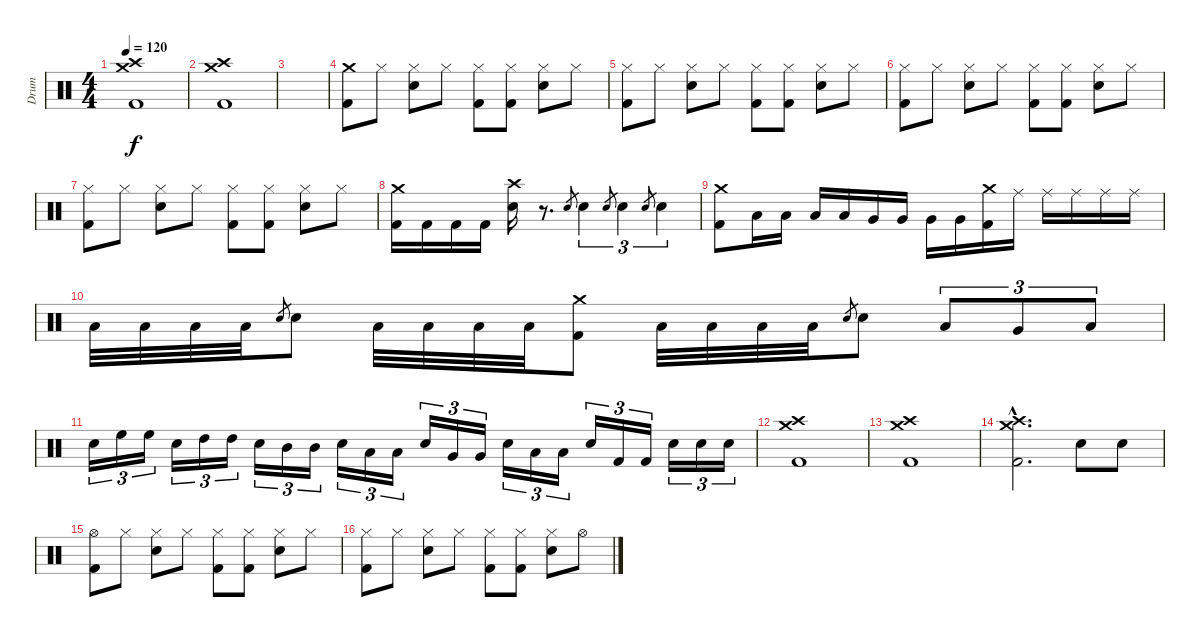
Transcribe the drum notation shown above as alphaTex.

\track ("Drum" "Drum") {instrument percussion}
\staff {score}
\articulation defaults
\ts (4 4)
\tempo 120
\clef neutral
\ks c
("Crash medium (hit)" "Crash high (hit)" "Kick (hit) 2").1{dy f} |
("Crash medium (hit)" "Crash high (hit)" "Kick (hit) 2").1 |
|
("Crash medium (hit)" "Kick (hit) 2").8 "Hi-Hat (closed)".8 ("Hi-Hat (closed)" "Electric Snare (hit)").8 "Hi-Hat (closed)".8 ("Hi-Hat (closed)" "Kick (hit) 2").8 ("Hi-Hat (closed)" "Kick (hit) 2").8 ("Hi-Hat (closed)" "Electric Snare (hit)").8 "Hi-Hat (closed)".8 |
("Hi-Hat (closed)" "Kick (hit) 2").8 "Hi-Hat (closed)".8 ("Hi-Hat (closed)" "Electric Snare (hit)").8 "Hi-Hat (closed)".8 ("Hi-Hat (closed)" "Kick (hit) 2").8 ("Hi-Hat (closed)" "Kick (hit) 2").8 ("Hi-Hat (closed)" "Electric Snare (hit)").8 "Hi-Hat (closed)".8 |
("Hi-Hat (closed)" "Kick (hit) 2").8 "Hi-Hat (closed)".8 ("Hi-Hat (closed)" "Electric Snare (hit)").8 "Hi-Hat (closed)".8 ("Hi-Hat (closed)" "Kick (hit) 2").8 ("Hi-Hat (closed)" "Kick (hit) 2").8 ("Hi-Hat (closed)" "Electric Snare (hit)").8 "Hi-Hat (closed)".8 |
("Hi-Hat (closed)" "Kick (hit) 2").8 "Hi-Hat (closed)".8 ("Hi-Hat (closed)" "Electric Snare (hit)").8 "Hi-Hat (closed)".8 ("Hi-Hat (closed)" "Kick (hit) 2").8 ("Hi-Hat (closed)" "Kick (hit) 2").8 ("Hi-Hat (closed)" "Electric Snare (hit)").8 "Hi-Hat (closed)".8 |
("Crash medium (hit)" "Kick (hit) 2").16{volume 15} "Kick (hit) 2".16 "Kick (hit) 2".16 "Kick (hit) 2".16 ("Crash high (hit)" "Electric Snare (hit)").16 r.8{d} "Electric Snare (hit)".8{gr} "Electric Snare (hit)".4{tu (3 2)} "Electric Snare (hit)".8{gr} "Electric Snare (hit)".4{tu (3 2)} "Electric Snare (hit)".8{gr} "Electric Snare (hit)".4{tu (3 2)} |
("Crash medium (hit)" "Kick (hit) 2").8 "Low Tom (hit)".16 "Low Tom (hit)".16 "Low Tom (hit)".16 "Low Tom (hit)".16 "Very Low Tom (hit)".16 "Very Low Tom (hit)".16 "Very Low Tom (hit)".16 "Very Low Tom (hit)".16 ("Crash medium (hit)" "Kick (hit) 2").16 "Ride (middle)".16 "Ride (middle)".16 "Ride (middle)".16 "Ride (middle)".16 "Ride (middle)".16 |
"Low Floor Tom (hit)".32 "Low Floor Tom (hit)".32 "Low Floor Tom (hit)".32 "Low Floor Tom (hit)".32 "Electric Snare (hit)".8{gr} "Electric Snare (hit)".8 "Low Floor Tom (hit)".32 "Low Floor Tom (hit)".32 "Low Floor Tom (hit)".32 "Low Floor Tom (hit)".32 ("Crash medium (hit)" "Kick (hit) 2").8 "Low Floor Tom (hit)".32 "Low Floor Tom (hit)".32 "Low Floor Tom (hit)".32 "Low Floor Tom (hit)".32 "Electric Snare (hit)".8{gr} "Electric Snare (hit)".8 "Low Tom (hit)".8{tu (3 2)} "Very Low Tom (hit)".8{tu (3 2)} "Low Floor Tom (hit)".8{tu (3 2)} |
"Electric Snare (hit)".16{tu (3 2)} "High Floor Tom (hit)".16{tu (3 2)} "High Floor Tom (hit)".16{tu (3 2)} "Electric Snare (hit)".16{tu (3 2)} "High Tom (hit)".16{tu (3 2)} "High Tom (hit)".16{tu (3 2)} "Electric Snare (hit)".16{tu (3 2)} "Mid Tom (hit)".16{tu (3 2)} "Mid Tom (hit)".16{tu (3 2)} "Electric Snare (hit)".16{tu (3 2)} "Low Tom (hit)".16{tu (3 2)} "Low Tom (hit)".16{tu (3 2)} "Electric Snare (hit)".16{tu (3 2)} "Very Low Tom (hit)".16{tu (3 2)} "Very Low Tom (hit)".16{tu (3 2)} "Electric Snare (hit)".16{tu (3 2)} "Low Floor Tom (hit)".16{tu (3 2)} "Low Floor Tom (hit)".16{tu (3 2)} "Electric Snare (hit)".16{tu (3 2)} "Kick (hit) 2".16{tu (3 2)} "Kick (hit) 2".16{tu (3 2)} "Electric Snare (hit)".16{tu (3 2)} "Electric Snare (hit)".16{tu (3 2)} "Electric Snare (hit)".16{tu (3 2)} |
("Crash medium (hit)" "Crash high (hit)" "Kick (hit) 2").1 |
("Crash medium (hit)" "Crash high (hit)" "Kick (hit) 2").1 |
("Crash medium (hit)"{hac} "Crash high (hit)"{hac} "Kick (hit) 2"{hac}).2{d} "Electric Snare (hit)".8 "Electric Snare (hit)".8 |
("Hi-Hat (open)" "Kick (hit) 2").8 "Hi-Hat (closed)".8 ("Hi-Hat (closed)" "Electric Snare (hit)").8 "Hi-Hat (closed)".8 ("Hi-Hat (closed)" "Kick (hit) 2").8 ("Hi-Hat (closed)" "Kick (hit) 2").8 ("Hi-Hat (closed)" "Electric Snare (hit)").8 "Hi-Hat (closed)".8 |
("Hi-Hat (closed)" "Kick (hit) 2").8 "Hi-Hat (closed)".8 ("Hi-Hat (closed)" "Electric Snare (hit)").8 "Hi-Hat (closed)".8 ("Hi-Hat (closed)" "Kick (hit) 2").8 ("Hi-Hat (closed)" "Kick (hit) 2").8 ("Hi-Hat (closed)" "Electric Snare (hit)").8 "Hi-Hat (open)".8
